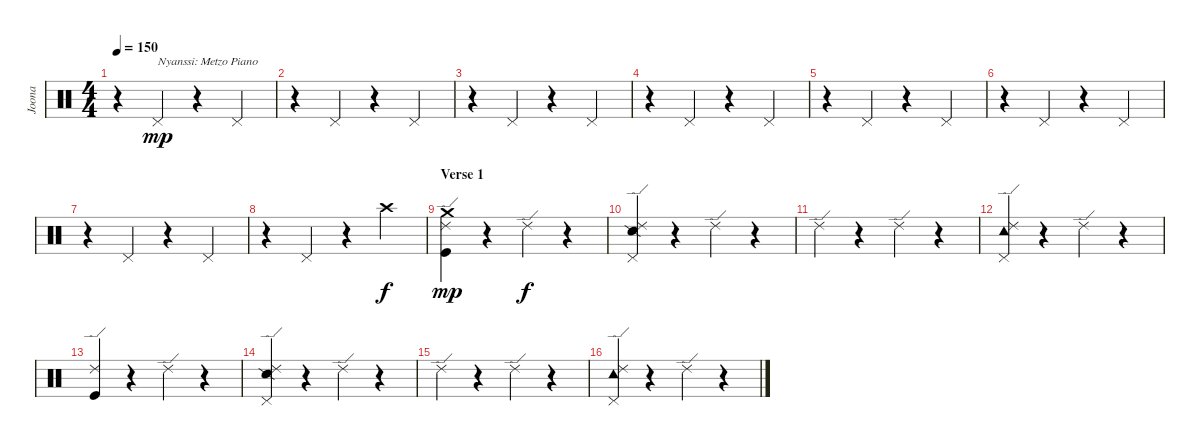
\track ("Joona" "Joona") {instrument percussion}
\staff {score}
\articulation defaults
\ts (4 4)
\tempo 150
\clef neutral
\ks c
r.4{dy mp} "Pedal Hi-Hat (hit)".4{txt "Nyanssi: Metzo Piano"} r.4 "Pedal Hi-Hat (hit)".4 |
r.4 "Pedal Hi-Hat (hit)".4 r.4 "Pedal Hi-Hat (hit)".4 |
r.4 "Pedal Hi-Hat (hit)".4 r.4 "Pedal Hi-Hat (hit)".4 |
r.4 "Pedal Hi-Hat (hit)".4 r.4 "Pedal Hi-Hat (hit)".4 |
r.4 "Pedal Hi-Hat (hit)".4 r.4 "Pedal Hi-Hat (hit)".4 |
r.4 "Pedal Hi-Hat (hit)".4 r.4 "Pedal Hi-Hat (hit)".4 |
r.4 "Pedal Hi-Hat (hit)".4 r.4 "Pedal Hi-Hat (hit)".4 |
r.4 "Pedal Hi-Hat (hit)".4 r.4 "Crash high (hit)".4{dy f} |
\section ("" "Verse 1")
("Crash medium (hit)" "Ride (edge) 2" "Kick (hit)").4{dy mp} r.4 "Ride (edge) 2".4{dy f} r.4 |
("Ride (edge) 2" "Snare (side stick) 2" "Pedal Hi-Hat (hit)").4 r.4 "Ride (edge) 2".4 r.4 |
"Ride (edge) 2".4 r.4 "Ride (edge) 2".4 r.4 |
("Tambourine (hit)" "Ride (edge) 2" "Pedal Hi-Hat (hit)").4 r.4 "Ride (edge) 2".4 r.4 |
("Ride (edge) 2" "Kick (hit)").4 r.4 "Ride (edge) 2".4 r.4 |
("Ride (edge) 2" "Snare (side stick) 2" "Pedal Hi-Hat (hit)").4 r.4 "Ride (edge) 2".4 r.4 |
"Ride (edge) 2".4 r.4 "Ride (edge) 2".4 r.4 |
("Tambourine (hit)" "Ride (edge) 2" "Pedal Hi-Hat (hit)").4 r.4 "Ride (edge) 2".4 r.4
